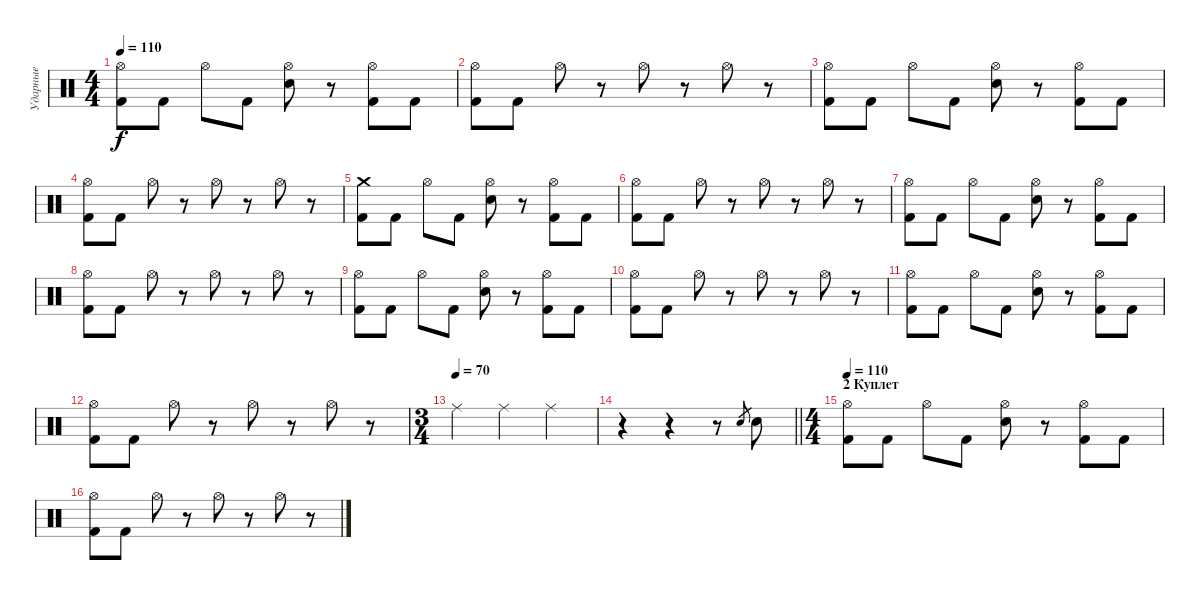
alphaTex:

\track ("Ударные" "Ударные") {instrument percussion}
\staff {score}
\articulation defaults
\ts (4 4)
\tempo 110
\clef neutral
\ks c
("Hi-Hat (open)" "Kick (hit) 2").8{dy f} "Kick (hit) 2".8 "Hi-Hat (open)".8 "Kick (hit) 2".8 ("Hi-Hat (open)" "Electric Snare (hit)").8 r.8 ("Hi-Hat (open)" "Kick (hit) 2").8 "Kick (hit) 2".8 |
("Hi-Hat (open)" "Kick (hit) 2").8 "Kick (hit) 2".8 "Hi-Hat (open)".8 r.8 "Hi-Hat (open)".8 r.8 "Hi-Hat (open)".8 r.8 |
("Hi-Hat (open)" "Kick (hit) 2").8 "Kick (hit) 2".8 "Hi-Hat (open)".8 "Kick (hit) 2".8 ("Hi-Hat (open)" "Electric Snare (hit)").8 r.8 ("Hi-Hat (open)" "Kick (hit) 2").8 "Kick (hit) 2".8 |
("Hi-Hat (open)" "Kick (hit) 2").8 "Kick (hit) 2".8 "Hi-Hat (open)".8 r.8 "Hi-Hat (open)".8 r.8 "Hi-Hat (open)".8 r.8 |
("Crash medium (hit)" "Kick (hit) 2").8 "Kick (hit) 2".8 "Hi-Hat (open)".8 "Kick (hit) 2".8 ("Hi-Hat (open)" "Electric Snare (hit)").8 r.8 ("Hi-Hat (open)" "Kick (hit) 2").8 "Kick (hit) 2".8 |
("Hi-Hat (open)" "Kick (hit) 2").8 "Kick (hit) 2".8 "Hi-Hat (open)".8 r.8 "Hi-Hat (open)".8 r.8 "Hi-Hat (open)".8 r.8 |
("Hi-Hat (open)" "Kick (hit) 2").8 "Kick (hit) 2".8 "Hi-Hat (open)".8 "Kick (hit) 2".8 ("Hi-Hat (open)" "Electric Snare (hit)").8 r.8 ("Hi-Hat (open)" "Kick (hit) 2").8 "Kick (hit) 2".8 |
("Hi-Hat (open)" "Kick (hit) 2").8 "Kick (hit) 2".8 "Hi-Hat (open)".8 r.8 "Hi-Hat (open)".8 r.8 "Hi-Hat (open)".8 r.8 |
("Hi-Hat (open)" "Kick (hit) 2").8 "Kick (hit) 2".8 "Hi-Hat (open)".8 "Kick (hit) 2".8 ("Hi-Hat (open)" "Electric Snare (hit)").8 r.8 ("Hi-Hat (open)" "Kick (hit) 2").8 "Kick (hit) 2".8 |
("Hi-Hat (open)" "Kick (hit) 2").8 "Kick (hit) 2".8 "Hi-Hat (open)".8 r.8 "Hi-Hat (open)".8 r.8 "Hi-Hat (open)".8 r.8 |
("Hi-Hat (open)" "Kick (hit) 2").8 "Kick (hit) 2".8 "Hi-Hat (open)".8 "Kick (hit) 2".8 ("Hi-Hat (open)" "Electric Snare (hit)").8 r.8 ("Hi-Hat (open)" "Kick (hit) 2").8 "Kick (hit) 2".8 |
("Hi-Hat (open)" "Kick (hit) 2").8 "Kick (hit) 2".8 "Hi-Hat (open)".8 r.8 "Hi-Hat (open)".8 r.8 "Hi-Hat (open)".8 r.8 |
\ts (3 4)
\tempo (70)
"Ride (middle)".4 "Ride (middle)".4 "Ride (middle)".4 |
\barLineRight lightlight
r.4 r.4 r.8 "Electric Snare (hit)".8{gr} "Electric Snare (hit)".8 |
\ts (4 4)
\section ("" "2 Куплет")
\tempo 110
("Hi-Hat (open)" "Kick (hit) 2").8 "Kick (hit) 2".8 "Hi-Hat (open)".8 "Kick (hit) 2".8 ("Hi-Hat (open)" "Electric Snare (hit)").8 r.8 ("Hi-Hat (open)" "Kick (hit) 2").8 "Kick (hit) 2".8 |
("Hi-Hat (open)" "Kick (hit) 2").8 "Kick (hit) 2".8 "Hi-Hat (open)".8 r.8 "Hi-Hat (open)".8 r.8 "Hi-Hat (open)".8 r.8
